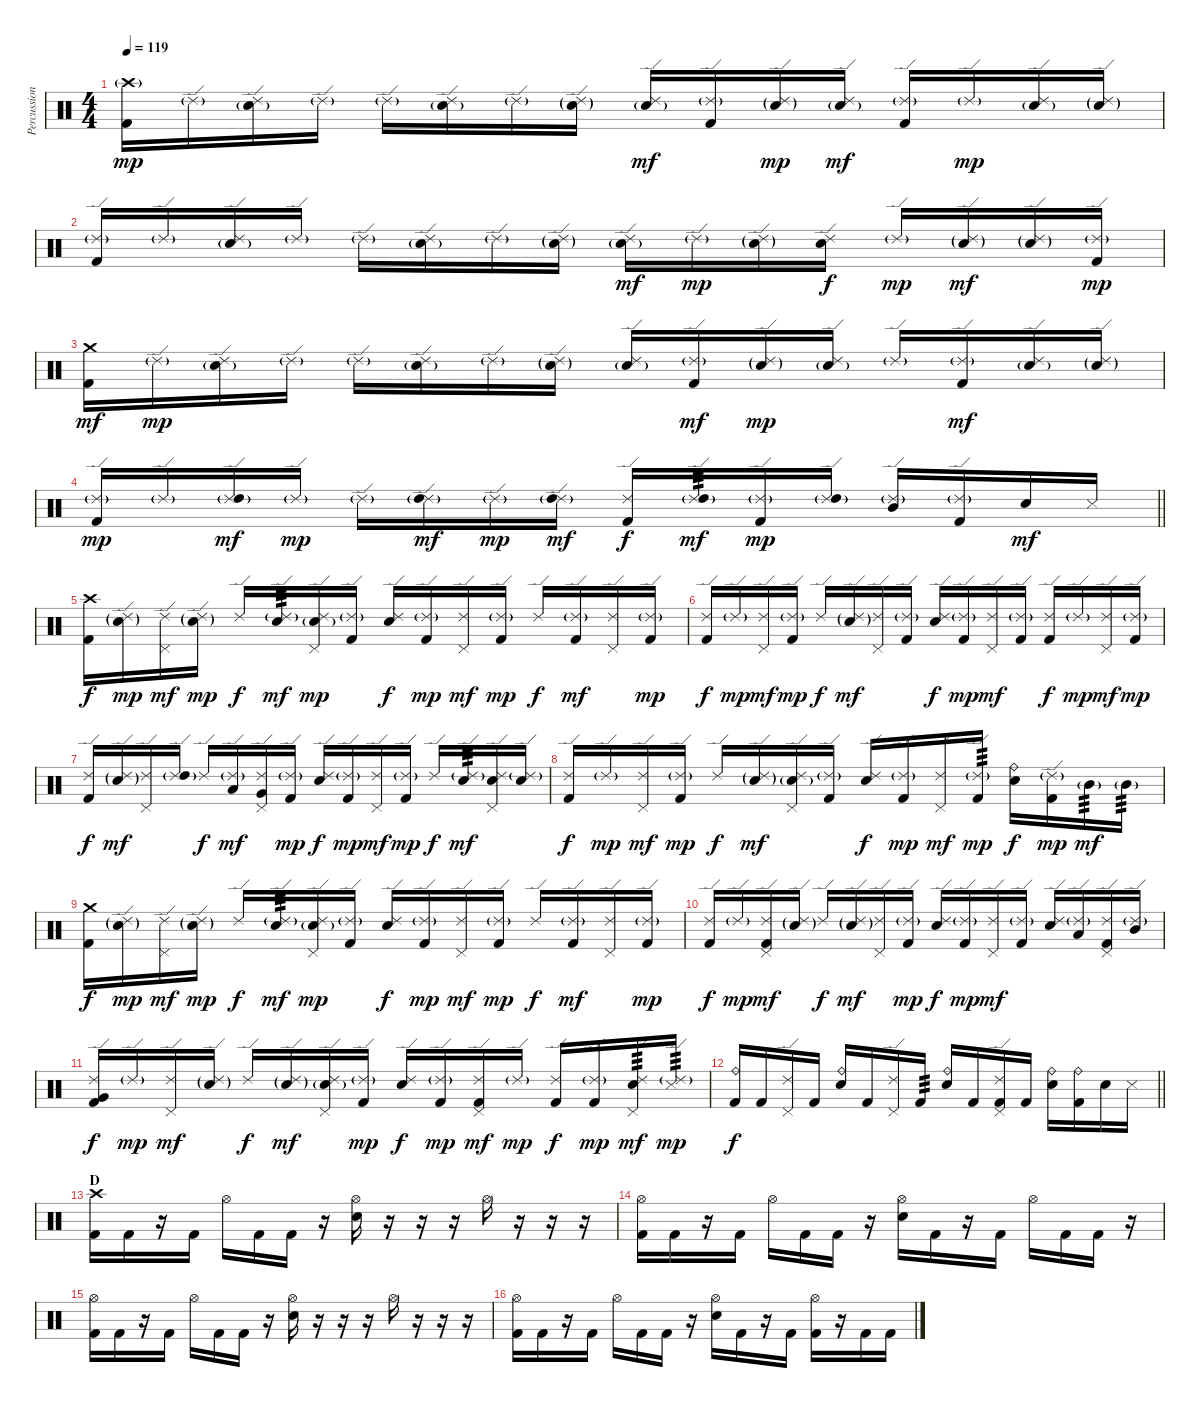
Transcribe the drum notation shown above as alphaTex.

\track ("Percussion" "Percussion") {instrument percussion}
\staff {score}
\articulation defaults
\ts (4 4)
\tempo 119
\clef neutral
\ks c
("Crash high (hit)"{g} "Kick (hit) 2").16{dy mp} "Ride (edge) 2"{g}.16 ("Ride (edge) 2" "Snare (hit) 2"{g}).16 "Ride (edge) 2"{g}.16 "Ride (edge) 2"{g}.16 ("Ride (edge) 2" "Snare (hit) 2"{g}).16 "Ride (edge) 2"{g}.16 ("Ride (edge) 2"{g} "Snare (hit) 2"{g}).16 ("Ride (edge) 2" "Snare (hit) 2"{g}).16{dy mf} ("Ride (edge) 2"{g} "Kick (hit) 2").16 ("Ride (edge) 2"{g} "Snare (hit) 2"{g}).16{dy mp} ("Ride (edge) 2" "Snare (hit) 2"{g}).16{dy mf} ("Ride (edge) 2"{g} "Kick (hit) 2").16 "Ride (edge) 2"{g}.16{dy mp} ("Ride (edge) 2" "Snare (hit) 2"{g}).16 ("Ride (edge) 2"{g} "Snare (hit) 2"{g}).16 |
("Ride (edge) 2"{g} "Kick (hit) 2").16 "Ride (edge) 2"{g}.16 ("Ride (edge) 2" "Snare (hit) 2"{g}).16 "Ride (edge) 2"{g}.16 "Ride (edge) 2"{g}.16 ("Ride (edge) 2" "Snare (hit) 2"{g}).16 "Ride (edge) 2"{g}.16 ("Ride (edge) 2"{g} "Snare (hit) 2"{g}).16 ("Ride (edge) 2" "Snare (hit) 2"{g}).16{dy mf} "Ride (edge) 2"{g}.16{dy mp} ("Ride (edge) 2"{g} "Electric Snare (hit)"{g}).16 ("Ride (edge) 2" "Electric Snare (hit)").16{dy f} "Ride (edge) 2"{g}.16{dy mp} ("Ride (edge) 2"{g} "Snare (hit) 2"{g}).16{dy mf} ("Ride (edge) 2"{g} "Snare (hit) 2"{g}).16 ("Ride (edge) 2"{g} "Kick (hit) 2").16{dy mp} |
("Crash medium (hit)" "Kick (hit) 2").16{dy mf} "Ride (edge) 2"{g}.16{dy mp} ("Ride (edge) 2" "Snare (hit) 2"{g}).16 "Ride (edge) 2"{g}.16 "Ride (edge) 2"{g}.16 ("Ride (edge) 2" "Snare (hit) 2"{g}).16 "Ride (edge) 2"{g}.16 ("Ride (edge) 2"{g} "Snare (hit) 2"{g}).16 ("Ride (edge) 2" "Snare (hit) 2"{g}).16 ("Ride (edge) 2"{g} "Kick (hit) 2").16{dy mf} ("Ride (edge) 2"{g} "Snare (hit) 2"{g}).16{dy mp} ("Ride (edge) 2" "Snare (hit) 2"{g}).16 "Ride (edge) 2"{g}.16 ("Ride (edge) 2"{g} "Kick (hit) 2").16{dy mf} ("Ride (edge) 2" "Snare (hit) 2"{g}).16 ("Ride (edge) 2"{g} "Snare (hit) 2"{g}).16 |
\barLineRight lightlight
("Ride (edge) 2"{g} "Kick (hit) 2").16{dy mp} "Ride (edge) 2"{g}.16 ("Ride (edge) 2" "High Tom (hit)"{g}).16{dy mf} "Ride (edge) 2"{g}.16{dy mp} "Ride (edge) 2"{g}.16 ("Ride (edge) 2" "High Tom (hit)"{g}).16{dy mf} "Ride (edge) 2"{g}.16{dy mp} ("Ride (edge) 2"{g} "High Tom (hit)"{g}).16{dy mf} ("Ride (edge) 2" "Kick (hit) 2").16{dy f} ("Ride (edge) 2"{g} "High Tom (hit)").16{tp 3 dy mf} ("Ride (edge) 2"{g} "Kick (hit) 2").16{dy mp} ("Ride (edge) 2"{g} "High Tom (hit)").16 ("Ride (edge) 2"{g} "Mid Tom (hit)").16 ("Ride (edge) 2"{g} "Kick (hit) 2").16 "Snare (hit) 2".16{dy mf} "Metronome (hit)".16 |
("Crash high (hit)" "Kick (hit) 2").16{dy f} ("Ride (edge) 2"{g} "Snare (hit) 2"{g}).16{dy mp} ("Ride (edge) 2" "Pedal Hi-Hat (hit)").16{dy mf} ("Ride (edge) 2"{g} "Snare (hit) 2"{g}).16{dy mp} "Ride (edge) 2".16{dy f} ("Ride (edge) 2"{g} "Snare (hit) 2").16{tp 3 dy mf} ("Ride (edge) 2" "Pedal Hi-Hat (hit)" "Snare (hit) 2"{g}).16{dy mp} ("Ride (edge) 2"{g} "Kick (hit) 2").16 ("Ride (edge) 2" "Snare (hit) 2").16{dy f} ("Ride (edge) 2"{g} "Kick (hit) 2").16{dy mp} ("Ride (edge) 2" "Pedal Hi-Hat (hit)").16{dy mf} ("Ride (edge) 2"{g} "Kick (hit) 2").16{dy mp} "Ride (edge) 2".16{dy f} ("Ride (edge) 2"{g} "Kick (hit) 2").16{dy mf} ("Ride (edge) 2" "Pedal Hi-Hat (hit)").16 ("Ride (edge) 2"{g} "Kick (hit) 2").16{dy mp} |
("Ride (edge) 2" "Kick (hit) 2").16{dy f} "Ride (edge) 2"{g}.16{dy mp} ("Ride (edge) 2" "Pedal Hi-Hat (hit)").16{dy mf} ("Ride (edge) 2"{g} "Kick (hit) 2").16{dy mp} "Ride (edge) 2".16{dy f} ("Ride (edge) 2"{g} "Snare (hit) 2"{g}).16{dy mf} ("Ride (edge) 2" "Pedal Hi-Hat (hit)").16 ("Ride (edge) 2"{g} "Kick (hit) 2").16 ("Ride (edge) 2" "Snare (hit) 2").16{dy f} ("Ride (edge) 2"{g} "Kick (hit) 2").16{dy mp} ("Ride (edge) 2" "Pedal Hi-Hat (hit)").16{dy mf} ("Ride (edge) 2"{g} "Kick (hit) 2").16 ("Ride (edge) 2" "Kick (hit) 2").16{dy f} "Ride (edge) 2"{g}.16{dy mp} ("Ride (edge) 2" "Pedal Hi-Hat (hit)").16{dy mf} ("Ride (edge) 2"{g} "Kick (hit) 2").16{dy mp} |
("Ride (edge) 2" "Kick (hit) 2").16{dy f} ("Ride (edge) 2"{g} "Snare (hit) 2"{g}).16{dy mf} ("Ride (edge) 2" "Pedal Hi-Hat (hit)").16 ("Ride (edge) 2"{g} "High Tom (hit)").16 "Ride (edge) 2".16{dy f} ("Ride (edge) 2"{g} "Low Tom (hit)").16{dy mf} ("Ride (edge) 2" "Pedal Hi-Hat (hit)" "Very Low Tom (hit)").16 ("Ride (edge) 2"{g} "Kick (hit) 2").16{dy mp} ("Ride (edge) 2" "Snare (hit) 2").16{dy f} ("Ride (edge) 2"{g} "Kick (hit) 2").16{dy mp} ("Ride (edge) 2" "Pedal Hi-Hat (hit)").16{dy mf} ("Ride (edge) 2"{g} "Kick (hit) 2").16{dy mp} "Ride (edge) 2".16{dy f} ("Ride (edge) 2"{g} "Snare (hit) 2").16{tp 3 dy mf} ("Ride (edge) 2" "Pedal Hi-Hat (hit)" "Snare (hit) 2").16 ("Ride (edge) 2"{g} "Snare (hit) 2").16 |
("Ride (edge) 2" "Kick (hit) 2").16{dy f} "Ride (edge) 2"{g}.16{dy mp} ("Ride (edge) 2" "Pedal Hi-Hat (hit)").16{dy mf} ("Ride (edge) 2"{g} "Kick (hit) 2").16{dy mp} "Ride (edge) 2".16{dy f} ("Ride (edge) 2"{g} "Snare (hit) 2"{g}).16{dy mf} ("Ride (edge) 2" "Pedal Hi-Hat (hit)" "Snare (hit) 2"{g}).16 ("Ride (edge) 2"{g} "Kick (hit) 2").16 ("Ride (edge) 2" "Snare (hit) 2").16{dy f} ("Ride (edge) 2"{g} "Kick (hit) 2").16{dy mp} ("Ride (edge) 2" "Pedal Hi-Hat (hit)").16{dy mf} ("Ride (edge) 2"{g} "Kick (hit) 2").16{tp 3 dy mp} ("Ride (bell)" "Snare (hit) 2").16{dy f} ("Ride (edge) 2"{g} "Kick (hit) 2").16{dy mp} "Mid Tom (hit)"{g}.16{tp 3 dy mf} "Mid Tom (hit)"{g}.16{tp 3} |
("Crash medium (hit)" "Kick (hit) 2").16{dy f} ("Ride (edge) 2"{g} "Snare (hit) 2"{g}).16{dy mp} ("Ride (edge) 2" "Pedal Hi-Hat (hit)").16{dy mf} ("Ride (edge) 2"{g} "Snare (hit) 2"{g}).16{dy mp} "Ride (edge) 2".16{dy f} ("Ride (edge) 2"{g} "Snare (hit) 2").16{tp 3 dy mf} ("Ride (edge) 2" "Pedal Hi-Hat (hit)" "Snare (hit) 2"{g}).16{dy mp} ("Ride (edge) 2"{g} "Kick (hit) 2").16 ("Ride (edge) 2" "Snare (hit) 2").16{dy f} ("Ride (edge) 2"{g} "Kick (hit) 2").16{dy mp} ("Ride (edge) 2" "Pedal Hi-Hat (hit)").16{dy mf} ("Ride (edge) 2"{g} "Kick (hit) 2").16{dy mp} "Ride (edge) 2".16{dy f} ("Ride (edge) 2"{g} "Kick (hit) 2").16{dy mf} ("Ride (edge) 2" "Pedal Hi-Hat (hit)").16 ("Ride (edge) 2"{g} "Kick (hit) 2").16{dy mp} |
("Ride (edge) 2" "Kick (hit) 2").16{dy f} "Ride (edge) 2"{g}.16{dy mp} ("Ride (edge) 2" "Pedal Hi-Hat (hit)" "Kick (hit) 2").16{dy mf} ("Ride (edge) 2"{g} "Snare (hit) 2"{g}).16 "Ride (edge) 2".16{dy f} ("Ride (edge) 2"{g} "Snare (hit) 2"{g}).16{dy mf} ("Ride (edge) 2" "Pedal Hi-Hat (hit)").16 ("Ride (edge) 2"{g} "Kick (hit) 2").16{dy mp} ("Ride (edge) 2" "Snare (hit) 2").16{dy f} ("Ride (edge) 2"{g} "Kick (hit) 2").16{dy mp} ("Ride (edge) 2" "Pedal Hi-Hat (hit)").16{dy mf} ("Ride (edge) 2"{g} "Kick (hit) 2").16 ("Ride (edge) 2" "Snare (hit) 2").16 ("Ride (edge) 2"{g} "Low Tom (hit)").16 ("Ride (edge) 2" "Pedal Hi-Hat (hit)" "Kick (hit) 2").16 ("Ride (edge) 2"{g} "Mid Tom (hit)").16 |
("Ride (edge) 2" "Very Low Tom (hit)" "Kick (hit) 2").16{dy f} "Ride (edge) 2"{g}.16{dy mp} ("Ride (edge) 2" "Pedal Hi-Hat (hit)").16{dy mf} ("Ride (edge) 2"{g} "Snare (hit) 2"{g}).16 "Ride (edge) 2".16{dy f} ("Ride (edge) 2"{g} "Snare (hit) 2"{g}).16{dy mf} ("Ride (edge) 2" "Pedal Hi-Hat (hit)" "Snare (hit) 2"{g}).16 ("Ride (edge) 2"{g} "Kick (hit) 2").16{dy mp} ("Ride (edge) 2" "Snare (hit) 2").16{dy f} ("Ride (edge) 2"{g} "Kick (hit) 2").16{dy mp} ("Ride (edge) 2" "Pedal Hi-Hat (hit)" "Kick (hit) 2").16{dy mf} "Ride (edge) 2"{g}.16{dy mp} ("Ride (edge) 2" "Kick (hit) 2").16{dy f} ("Ride (edge) 2"{g} "Kick (hit) 2").16{dy mp} ("Ride (edge) 2" "Pedal Hi-Hat (hit)" "Snare (hit) 2").16{tp 3 dy mf} ("Ride (edge) 2"{g} "Metronome (hit)").16{tp 3 dy mp} |
\barLineRight lightlight
("Ride (bell)" "Kick (hit) 2").16{dy f} "Kick (hit) 2".16 ("Ride (edge) 2" "Pedal Hi-Hat (hit)").16 "Kick (hit) 2".16 ("Ride (bell)" "Snare (hit) 2").16 "Kick (hit) 2".16 ("Ride (edge) 2" "Pedal Hi-Hat (hit)").16 "Kick (hit) 2".16{tp 3} ("Ride (bell)" "Snare (hit) 2").16 "Kick (hit) 2".16 ("Ride (edge) 2" "Pedal Hi-Hat (hit)" "Kick (hit) 2").16 "Kick (hit) 2".16 ("Ride (bell)" "Snare (hit) 2").16 ("Ride (bell)" "Kick (hit) 2").16 "Snare (hit) 2".16 "Metronome (hit)".16 |
\section ("" "D")
("Crash high (hit)" "Kick (hit) 2").16 "Kick (hit) 2".16 r.16 "Kick (hit) 2".16 "Hi-Hat (open)".16 "Kick (hit) 2".16 "Kick (hit) 2".16 r.16 ("Hi-Hat (open)" "Snare (hit) 2").16 r.16 r.16 r.16 "Hi-Hat (open)".16 r.16 r.16 r.16 |
("Hi-Hat (open)" "Kick (hit) 2").16 "Kick (hit) 2".16 r.16 "Kick (hit) 2".16 "Hi-Hat (open)".16 "Kick (hit) 2".16 "Kick (hit) 2".16 r.16 ("Hi-Hat (open)" "Snare (hit) 2").16 "Kick (hit) 2".16 r.16 "Kick (hit) 2".16 "Hi-Hat (open)".16 "Kick (hit) 2".16 "Kick (hit) 2".16 r.16 |
("Hi-Hat (open)" "Kick (hit) 2").16 "Kick (hit) 2".16 r.16 "Kick (hit) 2".16 "Hi-Hat (open)".16 "Kick (hit) 2".16 "Kick (hit) 2".16 r.16 ("Hi-Hat (open)" "Snare (hit) 2").16 r.16 r.16 r.16 "Hi-Hat (open)".16 r.16 r.16 r.16 |
("Hi-Hat (open)" "Kick (hit) 2").16 "Kick (hit) 2".16 r.16 "Kick (hit) 2".16 "Hi-Hat (open)".16 "Kick (hit) 2".16 "Kick (hit) 2".16 r.16 ("Hi-Hat (open)" "Snare (hit) 2").16 "Kick (hit) 2".16 r.16 "Kick (hit) 2".16 ("Hi-Hat (open)" "Kick (hit) 2").16 r.16 "Kick (hit) 2".16 "Kick (hit) 2".16
